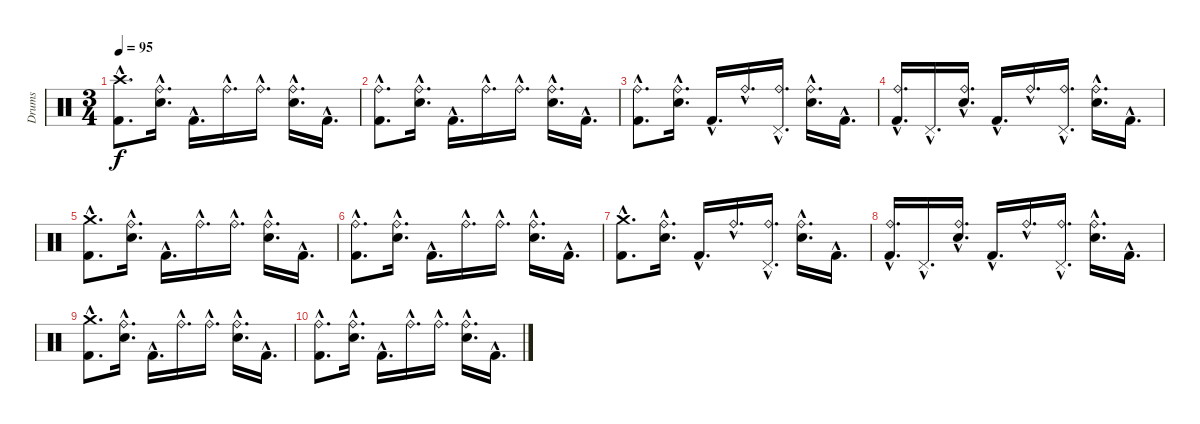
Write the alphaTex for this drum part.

\track ("Drums" "Drums") {instrument percussion}
\staff {score}
\articulation defaults
\ts (3 4)
\tempo 95
\clef neutral
\ks c
("Kick (hit) 2"{hac} "Crash high (hit)"{hac}).8{d dy f} ("Electric Snare (hit)"{hac} "Ride (bell)"{hac}).16{d} "Kick (hit) 2"{hac}.16{d} "Ride (bell)"{hac}.16{d} "Ride (bell)"{hac}.16{d} ("Electric Snare (hit)"{hac} "Ride (bell)"{hac}).16{d} "Kick (hit) 2"{hac}.16{d} |
("Kick (hit) 2"{hac} "Ride (bell)"{hac}).8{d} ("Electric Snare (hit)"{hac} "Ride (bell)"{hac}).16{d} "Kick (hit) 2"{hac}.16{d} "Ride (bell)"{hac}.16{d} "Ride (bell)"{hac}.16{d} ("Electric Snare (hit)"{hac} "Ride (bell)"{hac}).16{d} "Kick (hit) 2"{hac}.16{d} |
("Kick (hit) 2"{hac} "Ride (bell)"{hac}).8{d} ("Electric Snare (hit)"{hac} "Ride (bell)"{hac}).16{d} "Kick (hit) 2"{hac}.16{d} "Ride (bell)"{hac}.16{d} ("Ride (bell)"{hac} "Pedal Hi-Hat (hit)"{hac}).16{d} ("Electric Snare (hit)"{hac} "Ride (bell)"{hac}).16{d} "Kick (hit) 2"{hac}.16{d} |
("Kick (hit) 2"{hac} "Ride (bell)"{hac}).16{d} "Pedal Hi-Hat (hit)"{hac}.16{d} ("Electric Snare (hit)"{hac} "Ride (bell)"{hac}).16{d} "Kick (hit) 2"{hac}.16{d} "Ride (bell)"{hac}.16{d} ("Ride (bell)"{hac} "Pedal Hi-Hat (hit)"{hac}).16{d} ("Electric Snare (hit)"{hac} "Ride (bell)"{hac}).16{d} "Kick (hit) 2"{hac}.16{d} |
("Kick (hit) 2"{hac} "Crash medium (hit)"{hac}).8{d} ("Electric Snare (hit)"{hac} "Ride (bell)"{hac}).16{d} "Kick (hit) 2"{hac}.16{d} "Ride (bell)"{hac}.16{d} "Ride (bell)"{hac}.16{d} ("Electric Snare (hit)"{hac} "Ride (bell)"{hac}).16{d} "Kick (hit) 2"{hac}.16{d} |
("Kick (hit) 2"{hac} "Ride (bell)"{hac}).8{d} ("Electric Snare (hit)"{hac} "Ride (bell)"{hac}).16{d} "Kick (hit) 2"{hac}.16{d} "Ride (bell)"{hac}.16{d} "Ride (bell)"{hac}.16{d} ("Electric Snare (hit)"{hac} "Ride (bell)"{hac}).16{d} "Kick (hit) 2"{hac}.16{d} |
("Kick (hit) 2"{hac} "Crash medium (hit)"{hac}).8{d} ("Electric Snare (hit)"{hac} "Ride (bell)"{hac}).16{d} "Kick (hit) 2"{hac}.16{d} "Ride (bell)"{hac}.16{d} ("Ride (bell)"{hac} "Pedal Hi-Hat (hit)"{hac}).16{d} ("Electric Snare (hit)"{hac} "Ride (bell)"{hac}).16{d} "Kick (hit) 2"{hac}.16{d} |
("Kick (hit) 2"{hac} "Ride (bell)"{hac}).16{d} "Pedal Hi-Hat (hit)"{hac}.16{d} ("Electric Snare (hit)"{hac} "Ride (bell)"{hac}).16{d} "Kick (hit) 2"{hac}.16{d} "Ride (bell)"{hac}.16{d} ("Ride (bell)"{hac} "Pedal Hi-Hat (hit)"{hac}).16{d} ("Electric Snare (hit)"{hac} "Ride (bell)"{hac}).16{d} "Kick (hit) 2"{hac}.16{d} |
("Kick (hit) 2"{hac} "Crash medium (hit)"{hac}).8{d} ("Electric Snare (hit)"{hac} "Ride (bell)"{hac}).16{d} "Kick (hit) 2"{hac}.16{d} "Ride (bell)"{hac}.16{d} "Ride (bell)"{hac}.16{d} ("Electric Snare (hit)"{hac} "Ride (bell)"{hac}).16{d} "Kick (hit) 2"{hac}.16{d} |
("Kick (hit) 2"{hac} "Ride (bell)"{hac}).8{d} ("Electric Snare (hit)"{hac} "Ride (bell)"{hac}).16{d} "Kick (hit) 2"{hac}.16{d} "Ride (bell)"{hac}.16{d} "Ride (bell)"{hac}.16{d} ("Electric Snare (hit)"{hac} "Ride (bell)"{hac}).16{d} "Kick (hit) 2"{hac}.16{d}
